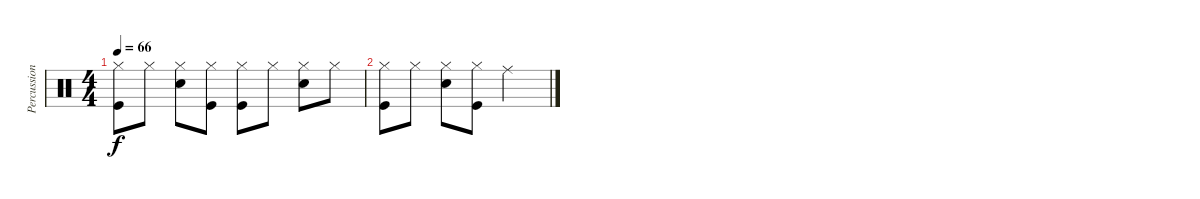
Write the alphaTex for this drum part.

\track ("Percussion" "Percussion") {instrument percussion}
\staff {score}
\articulation defaults
\ts (4 4)
\tempo 66
\clef neutral
\ks c
("Hi-Hat (closed)" "Kick (hit)").8{dy f} "Hi-Hat (closed)".8 ("Hi-Hat (closed)" "Snare (hit) 2").8 ("Hi-Hat (closed)" "Kick (hit)").8 ("Hi-Hat (closed)" "Kick (hit)").8 "Hi-Hat (closed)".8 ("Hi-Hat (closed)" "Snare (hit) 2").8 "Hi-Hat (closed)".8 |
("Hi-Hat (closed)" "Kick (hit)").8 "Hi-Hat (closed)".8 ("Hi-Hat (closed)" "Snare (hit) 2").8 ("Hi-Hat (closed)" "Kick (hit)").8 "Ride (middle)".2
